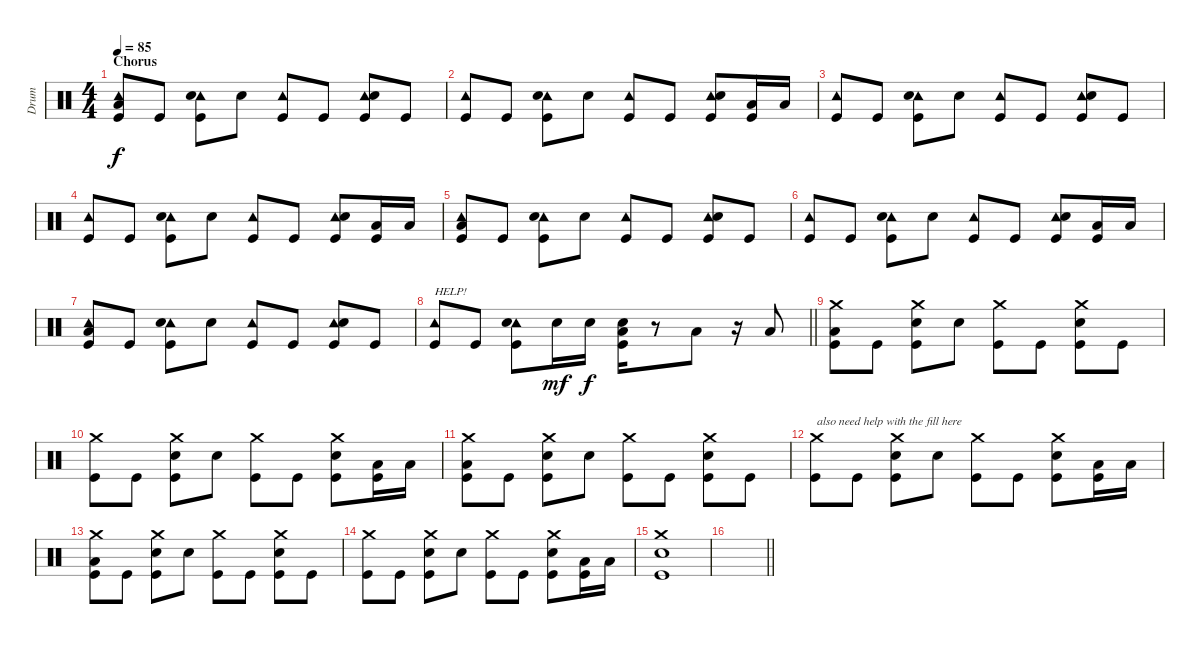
\track ("Drum" "Drum") {instrument percussion}
\staff {score}
\articulation defaults
\ts (4 4)
\section ("" "Chorus")
\tempo 85
\clef neutral
\ks c
("Tambourine (hit)" "Low Floor Tom (hit)" "Kick (hit)").8{dy f} "Kick (hit)".8 ("Tambourine (hit)" "Snare (hit) 2" "Kick (hit)").8 "Snare (hit) 2".8 ("Tambourine (hit)" "Kick (hit)").8 "Kick (hit)".8 ("Tambourine (hit)" "Snare (hit) 2" "Kick (hit)").8 "Kick (hit)".8 |
("Tambourine (hit)" "Kick (hit)").8 "Kick (hit)".8 ("Tambourine (hit)" "Snare (hit) 2" "Kick (hit)").8 "Snare (hit) 2".8 ("Tambourine (hit)" "Kick (hit)").8 "Kick (hit)".8 ("Tambourine (hit)" "Snare (hit) 2" "Kick (hit)").8 ("Low Floor Tom (hit)" "Kick (hit)").16 "Low Floor Tom (hit)".16 |
("Tambourine (hit)" "Kick (hit)").8 "Kick (hit)".8 ("Tambourine (hit)" "Snare (hit) 2" "Kick (hit)").8 "Snare (hit) 2".8 ("Tambourine (hit)" "Kick (hit)").8 "Kick (hit)".8 ("Tambourine (hit)" "Snare (hit) 2" "Kick (hit)").8 "Kick (hit)".8 |
("Tambourine (hit)" "Kick (hit)").8 "Kick (hit)".8 ("Tambourine (hit)" "Snare (hit) 2" "Kick (hit)").8 "Snare (hit) 2".8 ("Tambourine (hit)" "Kick (hit)").8 "Kick (hit)".8 ("Tambourine (hit)" "Snare (hit) 2" "Kick (hit)").8 ("Low Floor Tom (hit)" "Kick (hit)").16 "Low Floor Tom (hit)".16 |
("Tambourine (hit)" "Low Floor Tom (hit)" "Kick (hit)").8 "Kick (hit)".8 ("Tambourine (hit)" "Snare (hit) 2" "Kick (hit)").8 "Snare (hit) 2".8 ("Tambourine (hit)" "Kick (hit)").8 "Kick (hit)".8 ("Tambourine (hit)" "Snare (hit) 2" "Kick (hit)").8 "Kick (hit)".8 |
("Tambourine (hit)" "Kick (hit)").8 "Kick (hit)".8 ("Tambourine (hit)" "Snare (hit) 2" "Kick (hit)").8 "Snare (hit) 2".8 ("Tambourine (hit)" "Kick (hit)").8 "Kick (hit)".8 ("Tambourine (hit)" "Snare (hit) 2" "Kick (hit)").8 ("Low Floor Tom (hit)" "Kick (hit)").16 "Low Floor Tom (hit)".16 |
("Tambourine (hit)" "Low Floor Tom (hit)" "Kick (hit)").8 "Kick (hit)".8 ("Tambourine (hit)" "Snare (hit) 2" "Kick (hit)").8 "Snare (hit) 2".8 ("Tambourine (hit)" "Kick (hit)").8 "Kick (hit)".8 ("Tambourine (hit)" "Snare (hit) 2" "Kick (hit)").8 "Kick (hit)".8 |
\barLineRight lightlight
("Tambourine (hit)" "Kick (hit)").8{txt "HELP!"} "Kick (hit)".8 ("Tambourine (hit)" "Snare (hit) 2" "Kick (hit)").8 "Snare (hit) 2".16{dy mf} "Snare (hit) 2".16{dy f} ("Low Floor Tom (hit)" "Snare (hit) 2" "Kick (hit)").16 r.8 "Low Floor Tom (hit)".8 r.16 "Low Floor Tom (hit)".8 |
("Crash medium (hit)" "Low Floor Tom (hit)" "Kick (hit)").8 "Kick (hit)".8 ("Crash medium (hit)" "Snare (hit) 2" "Kick (hit)").8 "Snare (hit) 2".8 ("Crash medium (hit)" "Kick (hit)").8 "Kick (hit)".8 ("Crash medium (hit)" "Snare (hit) 2" "Kick (hit)").8 "Kick (hit)".8 |
("Crash medium (hit)" "Kick (hit)").8 "Kick (hit)".8 ("Crash medium (hit)" "Snare (hit) 2" "Kick (hit)").8 "Snare (hit) 2".8 ("Crash medium (hit)" "Kick (hit)").8 "Kick (hit)".8 ("Crash medium (hit)" "Snare (hit) 2" "Kick (hit)").8 ("Low Floor Tom (hit)" "Kick (hit)").16 "Low Floor Tom (hit)".16 |
("Crash medium (hit)" "Low Floor Tom (hit)" "Kick (hit)").8 "Kick (hit)".8 ("Crash medium (hit)" "Snare (hit) 2" "Kick (hit)").8 "Snare (hit) 2".8 ("Crash medium (hit)" "Kick (hit)").8 "Kick (hit)".8 ("Crash medium (hit)" "Snare (hit) 2" "Kick (hit)").8 "Kick (hit)".8 |
("Crash medium (hit)" "Kick (hit)").8{txt "also need help with the fill here"} "Kick (hit)".8 ("Crash medium (hit)" "Snare (hit) 2" "Kick (hit)").8 "Snare (hit) 2".8 ("Crash medium (hit)" "Kick (hit)").8 "Kick (hit)".8 ("Crash medium (hit)" "Snare (hit) 2" "Kick (hit)").8 ("Low Floor Tom (hit)" "Kick (hit)").16 "Low Floor Tom (hit)".16 |
("Crash medium (hit)" "Low Floor Tom (hit)" "Kick (hit)").8 "Kick (hit)".8 ("Crash medium (hit)" "Snare (hit) 2" "Kick (hit)").8 "Snare (hit) 2".8 ("Crash medium (hit)" "Kick (hit)").8 "Kick (hit)".8 ("Crash medium (hit)" "Snare (hit) 2" "Kick (hit)").8 "Kick (hit)".8 |
("Crash medium (hit)" "Kick (hit)").8 "Kick (hit)".8 ("Crash medium (hit)" "Snare (hit) 2" "Kick (hit)").8 "Snare (hit) 2".8 ("Crash medium (hit)" "Kick (hit)").8 "Kick (hit)".8 ("Crash medium (hit)" "Snare (hit) 2" "Kick (hit)").8 ("Low Floor Tom (hit)" "Kick (hit)").16 "Low Floor Tom (hit)".16 |
("Crash medium (hit)" "Snare (hit) 2" "Kick (hit)").1 |
\barLineRight lightlight
